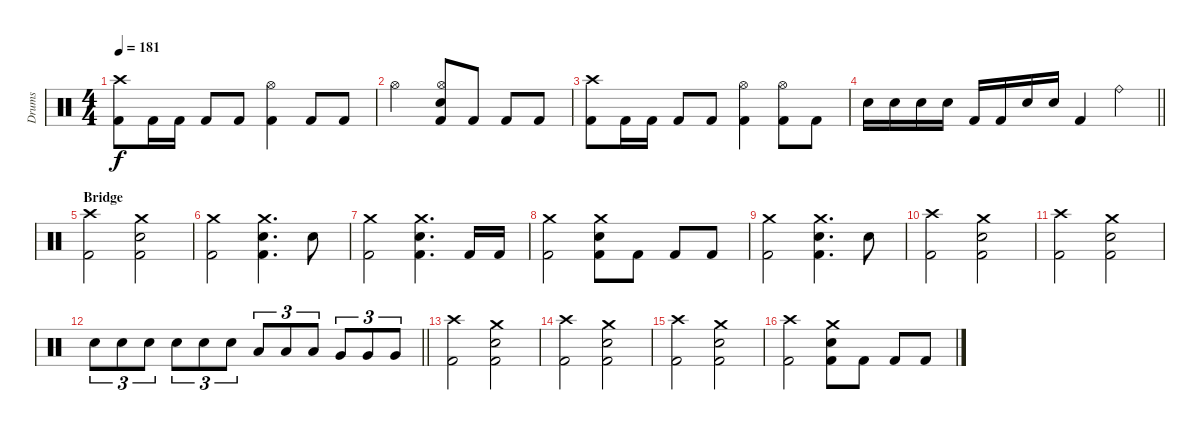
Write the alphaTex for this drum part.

\track ("Drums" "Drums") {instrument percussion}
\staff {score}
\articulation defaults
\ts (4 4)
\tempo 181
\clef neutral
\ks c
("Crash high (hit)" "Kick (hit) 2").8{dy f} "Kick (hit) 2".16 "Kick (hit) 2".16 "Kick (hit) 2".8 "Kick (hit) 2".8 ("Hi-Hat (open)" "Kick (hit) 2").4 "Kick (hit) 2".8 "Kick (hit) 2".8 |
"Hi-Hat (open)".2 ("Hi-Hat (open)" "Snare (hit) 2" "Kick (hit) 2").8 "Kick (hit) 2".8 "Kick (hit) 2".8 "Kick (hit) 2".8 |
("Crash high (hit)" "Kick (hit) 2").8 "Kick (hit) 2".16 "Kick (hit) 2".16 "Kick (hit) 2".8 "Kick (hit) 2".8 ("Hi-Hat (open)" "Kick (hit) 2").4 ("Hi-Hat (open)" "Kick (hit) 2").8 "Kick (hit) 2".8 |
\barLineRight lightlight "Snare (hit) 2".16 "Snare (hit) 2".16 "Snare (hit) 2".16 "Snare (hit) 2".16 "Kick (hit) 2".16 "Kick (hit) 2".16 "Snare (hit) 2".16 "Snare (hit) 2".16 "Kick (hit) 2".4 "Ride (bell)".4
|
\section ("" "Bridge")
("Crash high (hit)" "Kick (hit) 2").2 ("Crash medium (hit)" "Snare (hit) 2" "Kick (hit) 2").2 |
("Crash medium (hit)" "Kick (hit) 2").2 ("Crash medium (hit)" "Snare (hit) 2" "Kick (hit) 2").4{d} "Snare (hit) 2".8 |
("Crash medium (hit)" "Kick (hit) 2").2 ("Crash medium (hit)" "Snare (hit) 2" "Kick (hit) 2").4{d} "Kick (hit) 2".16 "Kick (hit) 2".16 |
("Crash medium (hit)" "Kick (hit) 2").2 ("Crash medium (hit)" "Snare (hit) 2" "Kick (hit) 2").8 "Kick (hit) 2".8 "Kick (hit) 2".8 "Kick (hit) 2".8 |
("Crash medium (hit)" "Kick (hit) 2").2 ("Crash medium (hit)" "Snare (hit) 2" "Kick (hit) 2").4{d} "Snare (hit) 2".8 |
("Crash high (hit)" "Kick (hit) 2").2 ("Crash medium (hit)" "Snare (hit) 2" "Kick (hit) 2").2 |
("Crash high (hit)" "Kick (hit) 2").2 ("Crash medium (hit)" "Snare (hit) 2" "Kick (hit) 2").2 |
\barLineRight lightlight "Snare (hit) 2".8{tu (3 2)} "Snare (hit) 2".8{tu (3 2)} "Snare (hit) 2".8{tu (3 2)} "Snare (hit) 2".8{tu (3 2)} "Snare (hit) 2".8{tu (3 2)} "Snare (hit) 2".8{tu (3 2)} "Low Tom (hit)".8{tu (3 2)} "Low Tom (hit)".8{tu (3 2)} "Low Tom (hit)".8{tu (3 2)} "Very Low Tom (hit)".8{tu (3 2)} "Very Low Tom (hit)".8{tu (3 2)} "Very Low Tom (hit)".8{tu (3 2)}
|
("Crash high (hit)" "Kick (hit) 2").2 ("Crash medium (hit)" "Snare (hit) 2" "Kick (hit) 2").2 |
("Crash high (hit)" "Kick (hit) 2").2 ("Crash medium (hit)" "Snare (hit) 2" "Kick (hit) 2").2 |
("Crash high (hit)" "Kick (hit) 2").2 ("Crash medium (hit)" "Snare (hit) 2" "Kick (hit) 2").2 |
("Crash high (hit)" "Kick (hit) 2").2 ("Crash medium (hit)" "Snare (hit) 2" "Kick (hit) 2").8 "Kick (hit) 2".8 "Kick (hit) 2".8 "Kick (hit) 2".8
